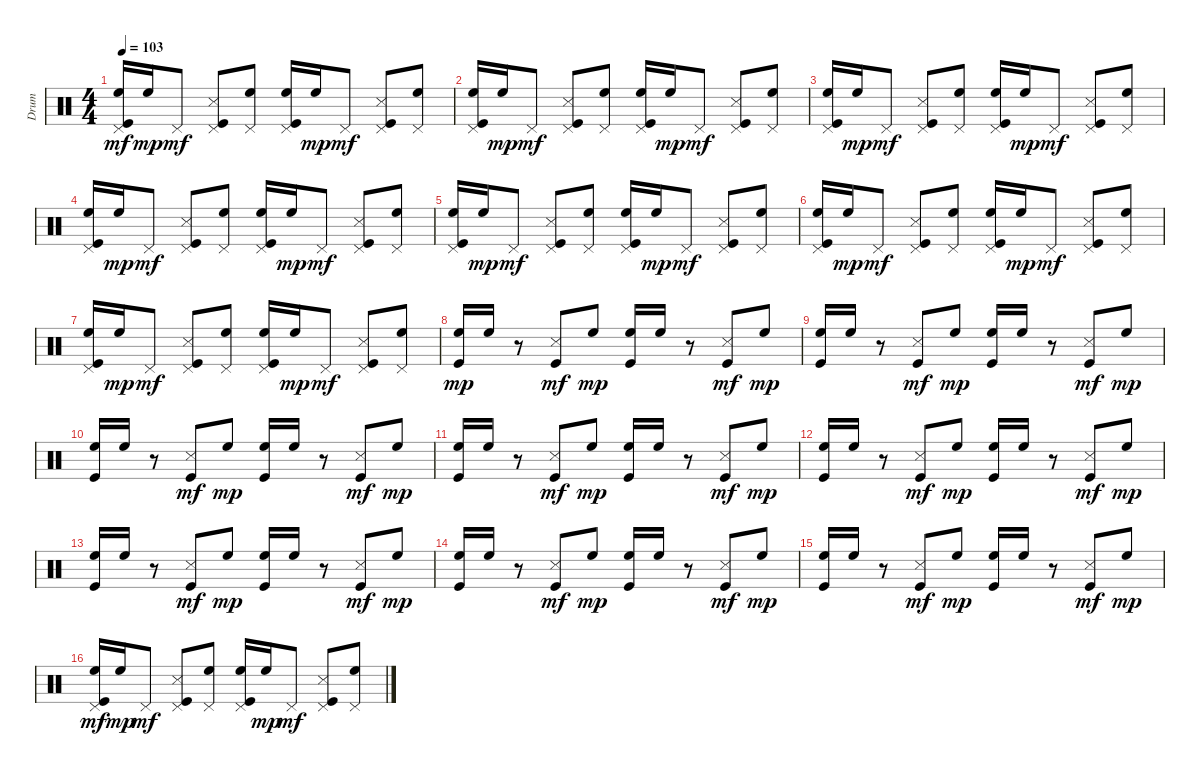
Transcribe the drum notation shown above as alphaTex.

\track ("Drum" "Drum") {instrument percussion}
\staff {score}
\articulation defaults
\ts (4 4)
\tempo 103
\clef neutral
\ks c
("Kick (hit)" "High Floor Tom (hit)" "Pedal Hi-Hat (hit)").16{dy mf} "High Floor Tom (hit)".16{dy mp} "Pedal Hi-Hat (hit)".8{dy mf} ("Kick (hit)" "Snare (side stick) 3" "Pedal Hi-Hat (hit)").8 ("High Floor Tom (hit)" "Pedal Hi-Hat (hit)").8 ("Kick (hit)" "High Floor Tom (hit)" "Pedal Hi-Hat (hit)").16 "High Floor Tom (hit)".16{dy mp} "Pedal Hi-Hat (hit)".8{dy mf} ("Kick (hit)" "Snare (side stick) 3" "Pedal Hi-Hat (hit)").8 ("High Floor Tom (hit)" "Pedal Hi-Hat (hit)").8 |
("Kick (hit)" "High Floor Tom (hit)" "Pedal Hi-Hat (hit)").16 "High Floor Tom (hit)".16{dy mp} "Pedal Hi-Hat (hit)".8{dy mf} ("Kick (hit)" "Snare (side stick) 3" "Pedal Hi-Hat (hit)").8 ("High Floor Tom (hit)" "Pedal Hi-Hat (hit)").8 ("Kick (hit)" "High Floor Tom (hit)" "Pedal Hi-Hat (hit)").16 "High Floor Tom (hit)".16{dy mp} "Pedal Hi-Hat (hit)".8{dy mf} ("Kick (hit)" "Snare (side stick) 3" "Pedal Hi-Hat (hit)").8 ("High Floor Tom (hit)" "Pedal Hi-Hat (hit)").8 |
("Kick (hit)" "High Floor Tom (hit)" "Pedal Hi-Hat (hit)").16 "High Floor Tom (hit)".16{dy mp} "Pedal Hi-Hat (hit)".8{dy mf} ("Kick (hit)" "Snare (side stick) 3" "Pedal Hi-Hat (hit)").8 ("High Floor Tom (hit)" "Pedal Hi-Hat (hit)").8 ("Kick (hit)" "High Floor Tom (hit)" "Pedal Hi-Hat (hit)").16 "High Floor Tom (hit)".16{dy mp} "Pedal Hi-Hat (hit)".8{dy mf} ("Kick (hit)" "Snare (side stick) 3" "Pedal Hi-Hat (hit)").8 ("High Floor Tom (hit)" "Pedal Hi-Hat (hit)").8 |
("Kick (hit)" "High Floor Tom (hit)" "Pedal Hi-Hat (hit)").16 "High Floor Tom (hit)".16{dy mp} "Pedal Hi-Hat (hit)".8{dy mf} ("Kick (hit)" "Snare (side stick) 3" "Pedal Hi-Hat (hit)").8 ("High Floor Tom (hit)" "Pedal Hi-Hat (hit)").8 ("Kick (hit)" "High Floor Tom (hit)" "Pedal Hi-Hat (hit)").16 "High Floor Tom (hit)".16{dy mp} "Pedal Hi-Hat (hit)".8{dy mf} ("Kick (hit)" "Snare (side stick) 3" "Pedal Hi-Hat (hit)").8 ("High Floor Tom (hit)" "Pedal Hi-Hat (hit)").8 |
("Kick (hit)" "High Floor Tom (hit)" "Pedal Hi-Hat (hit)").16 "High Floor Tom (hit)".16{dy mp} "Pedal Hi-Hat (hit)".8{dy mf} ("Kick (hit)" "Snare (side stick) 3" "Pedal Hi-Hat (hit)").8 ("High Floor Tom (hit)" "Pedal Hi-Hat (hit)").8 ("Kick (hit)" "High Floor Tom (hit)" "Pedal Hi-Hat (hit)").16 "High Floor Tom (hit)".16{dy mp} "Pedal Hi-Hat (hit)".8{dy mf} ("Kick (hit)" "Snare (side stick) 3" "Pedal Hi-Hat (hit)").8 ("High Floor Tom (hit)" "Pedal Hi-Hat (hit)").8 |
("Kick (hit)" "High Floor Tom (hit)" "Pedal Hi-Hat (hit)").16 "High Floor Tom (hit)".16{dy mp} "Pedal Hi-Hat (hit)".8{dy mf} ("Kick (hit)" "Snare (side stick) 3" "Pedal Hi-Hat (hit)").8 ("High Floor Tom (hit)" "Pedal Hi-Hat (hit)").8 ("Kick (hit)" "High Floor Tom (hit)" "Pedal Hi-Hat (hit)").16 "High Floor Tom (hit)".16{dy mp} "Pedal Hi-Hat (hit)".8{dy mf} ("Kick (hit)" "Snare (side stick) 3" "Pedal Hi-Hat (hit)").8 ("High Floor Tom (hit)" "Pedal Hi-Hat (hit)").8 |
("Kick (hit)" "High Floor Tom (hit)" "Pedal Hi-Hat (hit)").16 "High Floor Tom (hit)".16{dy mp} "Pedal Hi-Hat (hit)".8{dy mf} ("Kick (hit)" "Snare (side stick) 3" "Pedal Hi-Hat (hit)").8 ("High Floor Tom (hit)" "Pedal Hi-Hat (hit)").8 ("Kick (hit)" "High Floor Tom (hit)" "Pedal Hi-Hat (hit)").16 "High Floor Tom (hit)".16{dy mp} "Pedal Hi-Hat (hit)".8{dy mf} ("Kick (hit)" "Snare (side stick) 3" "Pedal Hi-Hat (hit)").8 ("High Floor Tom (hit)" "Pedal Hi-Hat (hit)").8 |
("Kick (hit)" "High Floor Tom (hit)").16{dy mp volume 11} "High Floor Tom (hit)".16 r.8 ("Kick (hit)" "Snare (side stick) 3").8{dy mf} "High Floor Tom (hit)".8{dy mp} ("Kick (hit)" "High Floor Tom (hit)").16 "High Floor Tom (hit)".16 r.8 ("Kick (hit)" "Snare (side stick) 3").8{dy mf} "High Floor Tom (hit)".8{dy mp} |
("Kick (hit)" "High Floor Tom (hit)").16{volume 11} "High Floor Tom (hit)".16 r.8 ("Kick (hit)" "Snare (side stick) 3").8{dy mf} "High Floor Tom (hit)".8{dy mp} ("Kick (hit)" "High Floor Tom (hit)").16 "High Floor Tom (hit)".16 r.8 ("Kick (hit)" "Snare (side stick) 3").8{dy mf} "High Floor Tom (hit)".8{dy mp} |
("Kick (hit)" "High Floor Tom (hit)").16{volume 11} "High Floor Tom (hit)".16 r.8 ("Kick (hit)" "Snare (side stick) 3").8{dy mf} "High Floor Tom (hit)".8{dy mp} ("Kick (hit)" "High Floor Tom (hit)").16 "High Floor Tom (hit)".16 r.8 ("Kick (hit)" "Snare (side stick) 3").8{dy mf} "High Floor Tom (hit)".8{dy mp} |
("Kick (hit)" "High Floor Tom (hit)").16{volume 11} "High Floor Tom (hit)".16 r.8 ("Kick (hit)" "Snare (side stick) 3").8{dy mf} "High Floor Tom (hit)".8{dy mp} ("Kick (hit)" "High Floor Tom (hit)").16 "High Floor Tom (hit)".16 r.8 ("Kick (hit)" "Snare (side stick) 3").8{dy mf} "High Floor Tom (hit)".8{dy mp} |
("Kick (hit)" "High Floor Tom (hit)").16 "High Floor Tom (hit)".16 r.8 ("Kick (hit)" "Snare (side stick) 3").8{dy mf} "High Floor Tom (hit)".8{dy mp} ("Kick (hit)" "High Floor Tom (hit)").16 "High Floor Tom (hit)".16 r.8 ("Kick (hit)" "Snare (side stick) 3").8{dy mf} "High Floor Tom (hit)".8{dy mp} |
("Kick (hit)" "High Floor Tom (hit)").16{volume 11} "High Floor Tom (hit)".16 r.8 ("Kick (hit)" "Snare (side stick) 3").8{dy mf} "High Floor Tom (hit)".8{dy mp} ("Kick (hit)" "High Floor Tom (hit)").16 "High Floor Tom (hit)".16 r.8 ("Kick (hit)" "Snare (side stick) 3").8{dy mf} "High Floor Tom (hit)".8{dy mp} |
("Kick (hit)" "High Floor Tom (hit)").16{volume 11} "High Floor Tom (hit)".16 r.8 ("Kick (hit)" "Snare (side stick) 3").8{dy mf} "High Floor Tom (hit)".8{dy mp} ("Kick (hit)" "High Floor Tom (hit)").16 "High Floor Tom (hit)".16 r.8 ("Kick (hit)" "Snare (side stick) 3").8{dy mf} "High Floor Tom (hit)".8{dy mp} |
("Kick (hit)" "High Floor Tom (hit)").16{volume 11} "High Floor Tom (hit)".16 r.8 ("Kick (hit)" "Snare (side stick) 3").8{dy mf} "High Floor Tom (hit)".8{dy mp} ("Kick (hit)" "High Floor Tom (hit)").16 "High Floor Tom (hit)".16 r.8 ("Kick (hit)" "Snare (side stick) 3").8{dy mf} "High Floor Tom (hit)".8{dy mp} |
("Kick (hit)" "High Floor Tom (hit)" "Pedal Hi-Hat (hit)").16{dy mf volume 16} "High Floor Tom (hit)".16{dy mp} "Pedal Hi-Hat (hit)".8{dy mf} ("Kick (hit)" "Snare (side stick) 3" "Pedal Hi-Hat (hit)").8 ("High Floor Tom (hit)" "Pedal Hi-Hat (hit)").8 ("Kick (hit)" "High Floor Tom (hit)" "Pedal Hi-Hat (hit)").16 "High Floor Tom (hit)".16{dy mp} "Pedal Hi-Hat (hit)".8{dy mf} ("Kick (hit)" "Snare (side stick) 3" "Pedal Hi-Hat (hit)").8 ("High Floor Tom (hit)" "Pedal Hi-Hat (hit)").8
